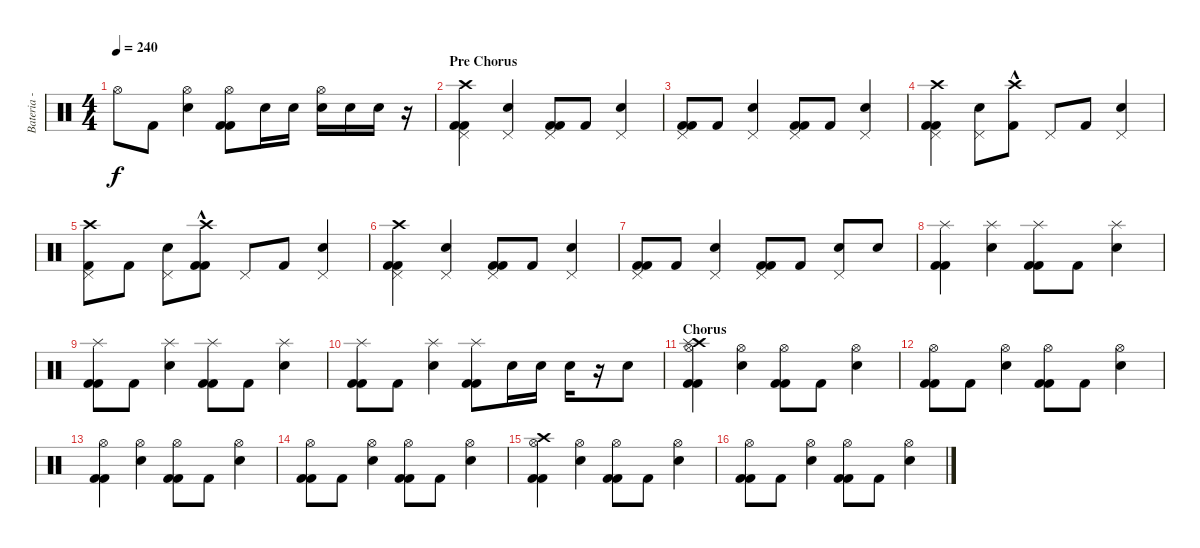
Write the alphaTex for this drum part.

\track ("Bateria - Larzon" "Bateria - ") {instrument percussion}
\staff {score}
\articulation defaults
\ts (4 4)
\tempo 240
\clef neutral
\ks c "Hi-Hat (open)".8{dy f} "Kick (hit) 2".8
("Hi-Hat (open)" "Snare (hit) 2").4 ("Kick (hit) 2" "Hi-Hat (open)" "Kick (hit) 2").8{volume 12} "Snare (hit) 2".16 "Snare (hit) 2".16{volume 16} ("Hi-Hat (open)" "Snare (hit) 2").16{volume 12} "Snare (hit) 2".16 "Snare (hit) 2".16{volume 16} r.16 |
\section ("" "Pre Chorus")
("Pedal Hi-Hat (hit)" "Crash high (hit)" "Kick (hit) 2" "Kick (hit) 2").4 ("Pedal Hi-Hat (hit)" "Snare (hit) 2").4 ("Pedal Hi-Hat (hit)" "Kick (hit) 2" "Kick (hit) 2").8{volume 12} "Kick (hit) 2".8 ("Pedal Hi-Hat (hit)" "Snare (hit) 2").4{volume 12} |
("Pedal Hi-Hat (hit)" "Kick (hit) 2" "Kick (hit) 2").8{volume 16} "Kick (hit) 2".8 ("Pedal Hi-Hat (hit)" "Snare (hit) 2").4 ("Pedal Hi-Hat (hit)" "Kick (hit) 2" "Kick (hit) 2").8{volume 12} "Kick (hit) 2".8 ("Pedal Hi-Hat (hit)" "Snare (hit) 2").4{volume 12} |
("Crash high (hit)" "Pedal Hi-Hat (hit)" "Kick (hit) 2" "Kick (hit) 2").4{volume 16} ("Pedal Hi-Hat (hit)" "Snare (hit) 2").8 ("Crash high (hit)"{hac} "Kick (hit) 2").8 "Pedal Hi-Hat (hit)".8{volume 12} "Kick (hit) 2".8 ("Snare (hit) 2" "Pedal Hi-Hat (hit)").4{volume 12} |
("Crash high (hit)" "Kick (hit) 2" "Pedal Hi-Hat (hit)").8{volume 16} "Kick (hit) 2".8 ("Pedal Hi-Hat (hit)" "Snare (hit) 2").8 ("Crash high (hit)"{hac} "Kick (hit) 2" "Kick (hit) 2").8 "Pedal Hi-Hat (hit)".8{volume 12} "Kick (hit) 2".8 ("Snare (hit) 2" "Pedal Hi-Hat (hit)").4{volume 12} |
("Kick (hit) 2" "Pedal Hi-Hat (hit)" "Crash high (hit)" "Kick (hit) 2").4{volume 16} ("Snare (hit) 2" "Pedal Hi-Hat (hit)").4 ("Pedal Hi-Hat (hit)" "Kick (hit) 2" "Kick (hit) 2").8{volume 12} "Kick (hit) 2".8 ("Snare (hit) 2" "Pedal Hi-Hat (hit)").4{volume 12} |
("Kick (hit) 2" "Pedal Hi-Hat (hit)" "Kick (hit) 2").8{volume 16} "Kick (hit) 2".8 ("Snare (hit) 2" "Pedal Hi-Hat (hit)").4 ("Kick (hit) 2" "Pedal Hi-Hat (hit)" "Kick (hit) 2").8{volume 12} "Kick (hit) 2".8 ("Pedal Hi-Hat (hit)" "Snare (hit) 2").8{volume 12} "Snare (hit) 2".8{volume 16} |
("Kick (hit) 2" "Kick (hit) 2" "Splash (hit)").4 ("Snare (hit) 2" "Splash (hit)").4 ("Kick (hit) 2" "Splash (hit)" "Kick (hit) 2").8{volume 12} "Kick (hit) 2".8 ("Snare (hit) 2" "Splash (hit)").4{volume 12} |
("Kick (hit) 2" "Kick (hit) 2" "Splash (hit)").8{volume 16} "Kick (hit) 2".8 ("Snare (hit) 2" "Splash (hit)").4 ("Kick (hit) 2" "Kick (hit) 2" "Splash (hit)").8{volume 12} "Kick (hit) 2".8 ("Snare (hit) 2" "Splash (hit)").4{volume 12} |
("Kick (hit) 2" "Kick (hit) 2" "Splash (hit)").8{volume 16} "Kick (hit) 2".8 ("Snare (hit) 2" "Splash (hit)").4 ("Kick (hit) 2" "Kick (hit) 2" "Splash (hit)").8 "Snare (hit) 2".16 "Snare (hit) 2".16 "Snare (hit) 2".16 r.16 "Snare (hit) 2".8 |
\section ("" "Chorus")
("Kick (hit) 2" "Kick (hit) 2" "Crash high (hit)" "Splash (hit)" "Hi-Hat (open)").4 ("Snare (hit) 2" "Hi-Hat (open)").4 ("Kick (hit) 2" "Hi-Hat (open)" "Kick (hit) 2").8{volume 12} "Kick (hit) 2".8 ("Snare (hit) 2" "Hi-Hat (open)").4{volume 12} |
("Kick (hit) 2" "Kick (hit) 2" "Hi-Hat (open)").8{volume 16} "Kick (hit) 2".8 ("Snare (hit) 2" "Hi-Hat (open)").4 ("Kick (hit) 2" "Kick (hit) 2" "Hi-Hat (open)").8{volume 12} "Kick (hit) 2".8 ("Snare (hit) 2" "Hi-Hat (open)").4{volume 12} |
("Kick (hit) 2" "Kick (hit) 2" "Hi-Hat (open)").4{volume 16} ("Snare (hit) 2" "Hi-Hat (open)").4 ("Kick (hit) 2" "Hi-Hat (open)" "Kick (hit) 2").8{volume 12} "Kick (hit) 2".8 ("Snare (hit) 2" "Hi-Hat (open)").4{volume 12} |
("Kick (hit) 2" "Kick (hit) 2" "Hi-Hat (open)").8{volume 16} "Kick (hit) 2".8 ("Snare (hit) 2" "Hi-Hat (open)").4 ("Kick (hit) 2" "Kick (hit) 2" "Hi-Hat (open)").8{volume 12} "Kick (hit) 2".8 ("Snare (hit) 2" "Hi-Hat (open)").4{volume 12} |
("Kick (hit) 2" "Kick (hit) 2" "Crash high (hit)" "Hi-Hat (open)").4{volume 16} ("Snare (hit) 2" "Hi-Hat (open)").4 ("Kick (hit) 2" "Hi-Hat (open)" "Kick (hit) 2").8{volume 12} "Kick (hit) 2".8 ("Snare (hit) 2" "Hi-Hat (open)").4{volume 12} |
("Kick (hit) 2" "Kick (hit) 2" "Hi-Hat (open)").8{volume 16} "Kick (hit) 2".8 ("Snare (hit) 2" "Hi-Hat (open)").4 ("Kick (hit) 2" "Kick (hit) 2" "Hi-Hat (open)").8{volume 12} "Kick (hit) 2".8 ("Snare (hit) 2" "Hi-Hat (open)").4{volume 12}
